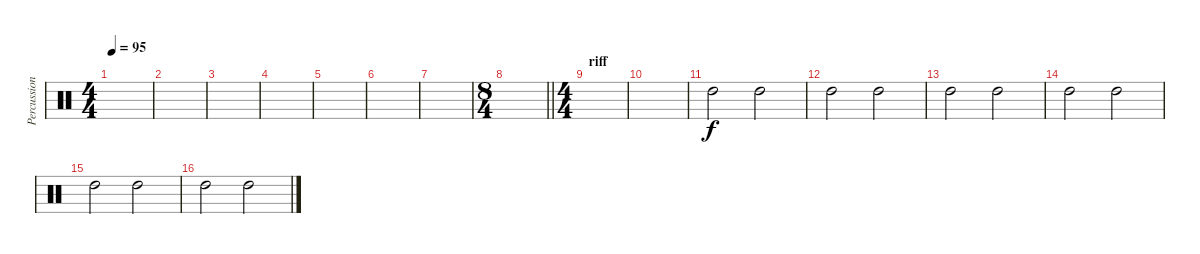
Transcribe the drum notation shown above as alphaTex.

\track ("Percussioni" "Percussion") {instrument percussion}
\staff {score}
\articulation defaults
\ts (4 4)
\tempo 95
\clef neutral
\ks c
|
|
|
|
|
|
|
\ts (8 4)
\barLineRight lightlight
|
\ts (4 4)
\section ("" "riff")
|
|
"High Tom (hit)".2 "High Tom (hit)".2 |
"High Tom (hit)".2 "High Tom (hit)".2 |
"High Tom (hit)".2 "High Tom (hit)".2 |
"High Tom (hit)".2 "High Tom (hit)".2 |
"High Tom (hit)".2 "High Tom (hit)".2 |
"High Tom (hit)".2 "High Tom (hit)".2
